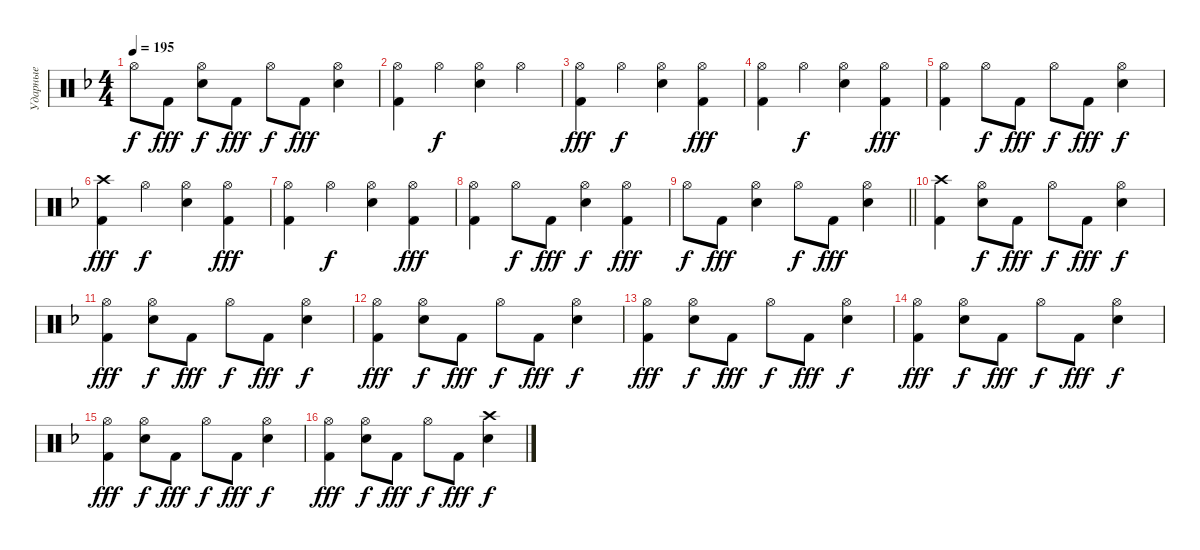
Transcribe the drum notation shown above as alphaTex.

\track ("Ударные" "Ударные") {instrument percussion}
\staff {score}
\articulation defaults
\ts (4 4)
\tempo 195
\clef neutral
\ks f "Hi-Hat (open)".8{dy f} "Kick (hit) 2".8{dy fff}
("Snare (hit) 2" "Hi-Hat (open)").8{dy f} "Kick (hit) 2".8{dy fff} "Hi-Hat (open)".8{dy f} "Kick (hit) 2".8{dy fff} ("Snare (hit) 2" "Hi-Hat (open)").4 |
("Kick (hit) 2" "Hi-Hat (open)").4 "Hi-Hat (open)".4{dy f} ("Snare (hit) 2" "Hi-Hat (open)").4 "Hi-Hat (open)".4 |
("Kick (hit) 2" "Hi-Hat (open)").4{dy fff} "Hi-Hat (open)".4{dy f} ("Snare (hit) 2" "Hi-Hat (open)").4 ("Kick (hit) 2" "Hi-Hat (open)").4{dy fff} |
("Kick (hit) 2" "Hi-Hat (open)").4 "Hi-Hat (open)".4{dy f} ("Snare (hit) 2" "Hi-Hat (open)").4 ("Kick (hit) 2" "Hi-Hat (open)").4{dy fff} |
("Kick (hit) 2" "Hi-Hat (open)").4 "Hi-Hat (open)".8{dy f} "Kick (hit) 2".8{dy fff} "Hi-Hat (open)".8{dy f} "Kick (hit) 2".8{dy fff} ("Snare (hit) 2" "Hi-Hat (open)").4{dy f} |
("Kick (hit) 2" "Crash high (hit)").4{dy fff} "Hi-Hat (open)".4{dy f} ("Snare (hit) 2" "Hi-Hat (open)").4 ("Kick (hit) 2" "Hi-Hat (open)").4{dy fff} |
("Kick (hit) 2" "Hi-Hat (open)").4 "Hi-Hat (open)".4{dy f} ("Snare (hit) 2" "Hi-Hat (open)").4 ("Kick (hit) 2" "Hi-Hat (open)").4{dy fff} |
("Kick (hit) 2" "Hi-Hat (open)").4 "Hi-Hat (open)".8{dy f} "Kick (hit) 2".8{dy fff} ("Snare (hit) 2" "Hi-Hat (open)").4{dy f} ("Kick (hit) 2" "Hi-Hat (open)").4{dy fff} |
\barLineRight lightlight "Hi-Hat (open)".8{dy f} "Kick (hit) 2".8{dy fff}
("Snare (hit) 2" "Hi-Hat (open)").4 "Hi-Hat (open)".8{dy f} "Kick (hit) 2".8{dy fff} ("Snare (hit) 2" "Hi-Hat (open)").4 |
("Kick (hit) 2" "Crash high (hit)").4 ("Snare (hit) 2" "Hi-Hat (open)").8{dy f} "Kick (hit) 2".8{dy fff} "Hi-Hat (open)".8{dy f} "Kick (hit) 2".8{dy fff} ("Snare (hit) 2" "Hi-Hat (open)").4{dy f} |
("Kick (hit) 2" "Hi-Hat (open)").4{dy fff} ("Snare (hit) 2" "Hi-Hat (open)").8{dy f} "Kick (hit) 2".8{dy fff} "Hi-Hat (open)".8{dy f} "Kick (hit) 2".8{dy fff} ("Snare (hit) 2" "Hi-Hat (open)").4{dy f} |
("Kick (hit) 2" "Hi-Hat (open)").4{dy fff} ("Snare (hit) 2" "Hi-Hat (open)").8{dy f} "Kick (hit) 2".8{dy fff} "Hi-Hat (open)".8{dy f} "Kick (hit) 2".8{dy fff} ("Snare (hit) 2" "Hi-Hat (open)").4{dy f} |
("Kick (hit) 2" "Hi-Hat (open)").4{dy fff} ("Snare (hit) 2" "Hi-Hat (open)").8{dy f} "Kick (hit) 2".8{dy fff} "Hi-Hat (open)".8{dy f} "Kick (hit) 2".8{dy fff} ("Snare (hit) 2" "Hi-Hat (open)").4{dy f} |
("Kick (hit) 2" "Hi-Hat (open)").4{dy fff} ("Snare (hit) 2" "Hi-Hat (open)").8{dy f} "Kick (hit) 2".8{dy fff} "Hi-Hat (open)".8{dy f} "Kick (hit) 2".8{dy fff} ("Snare (hit) 2" "Hi-Hat (open)").4{dy f} |
("Kick (hit) 2" "Hi-Hat (open)").4{dy fff} ("Snare (hit) 2" "Hi-Hat (open)").8{dy f} "Kick (hit) 2".8{dy fff} "Hi-Hat (open)".8{dy f} "Kick (hit) 2".8{dy fff} ("Snare (hit) 2" "Hi-Hat (open)").4{dy f} |
("Kick (hit) 2" "Hi-Hat (open)").4{dy fff} ("Snare (hit) 2" "Hi-Hat (open)").8{dy f} "Kick (hit) 2".8{dy fff} "Hi-Hat (open)".8{dy f} "Kick (hit) 2".8{dy fff} ("Snare (hit) 2" "Crash high (hit)").4{dy f}
